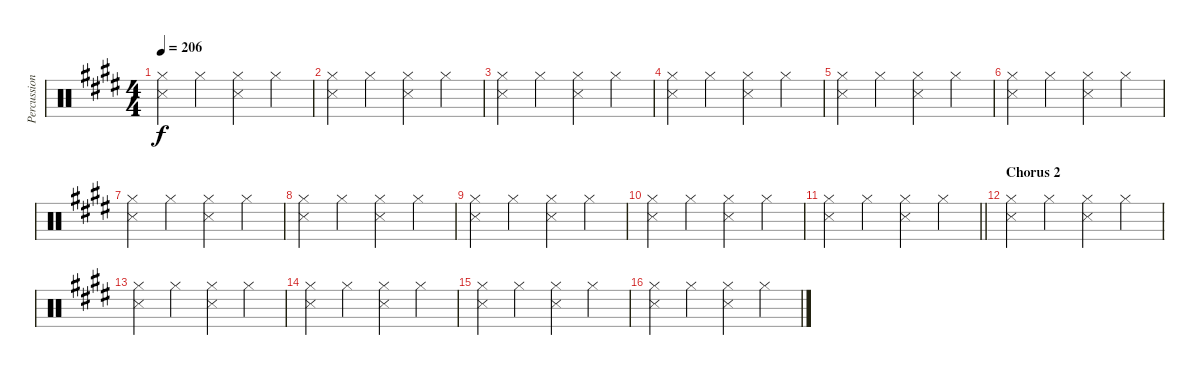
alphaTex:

\track ("Percussion" "Percussion") {instrument percussion}
\staff {score}
\articulation defaults
\ts (4 4)
\tempo 206
\clef neutral
\ks e
("Hi-Hat (closed)" "Snare (side stick) 3").4{dy f} "Hi-Hat (closed)".4 ("Hi-Hat (closed)" "Snare (side stick) 3").4 "Hi-Hat (closed)".4 |
("Hi-Hat (closed)" "Snare (side stick) 3").4 "Hi-Hat (closed)".4 ("Hi-Hat (closed)" "Snare (side stick) 3").4 "Hi-Hat (closed)".4 |
("Hi-Hat (closed)" "Snare (side stick) 3").4 "Hi-Hat (closed)".4 ("Hi-Hat (closed)" "Snare (side stick) 3").4 "Hi-Hat (closed)".4 |
("Hi-Hat (closed)" "Snare (side stick) 3").4 "Hi-Hat (closed)".4 ("Hi-Hat (closed)" "Snare (side stick) 3").4 "Hi-Hat (closed)".4 |
("Hi-Hat (closed)" "Snare (side stick) 3").4 "Hi-Hat (closed)".4 ("Hi-Hat (closed)" "Snare (side stick) 3").4 "Hi-Hat (closed)".4 |
("Hi-Hat (closed)" "Snare (side stick) 3").4 "Hi-Hat (closed)".4 ("Hi-Hat (closed)" "Snare (side stick) 3").4 "Hi-Hat (closed)".4 |
("Hi-Hat (closed)" "Snare (side stick) 3").4 "Hi-Hat (closed)".4 ("Hi-Hat (closed)" "Snare (side stick) 3").4 "Hi-Hat (closed)".4 |
("Hi-Hat (closed)" "Snare (side stick) 3").4 "Hi-Hat (closed)".4 ("Hi-Hat (closed)" "Snare (side stick) 3").4 "Hi-Hat (closed)".4 |
("Hi-Hat (closed)" "Snare (side stick) 3").4 "Hi-Hat (closed)".4 ("Hi-Hat (closed)" "Snare (side stick) 3").4 "Hi-Hat (closed)".4 |
("Hi-Hat (closed)" "Snare (side stick) 3").4 "Hi-Hat (closed)".4 ("Hi-Hat (closed)" "Snare (side stick) 3").4 "Hi-Hat (closed)".4 |
\barLineRight lightlight
("Hi-Hat (closed)" "Snare (side stick) 3").4 "Hi-Hat (closed)".4 ("Hi-Hat (closed)" "Snare (side stick) 3").4 "Hi-Hat (closed)".4 |
\section ("" "Chorus 2")
("Hi-Hat (closed)" "Snare (side stick) 3").4 "Hi-Hat (closed)".4 ("Hi-Hat (closed)" "Snare (side stick) 3").4 "Hi-Hat (closed)".4 |
("Hi-Hat (closed)" "Snare (side stick) 3").4 "Hi-Hat (closed)".4 ("Hi-Hat (closed)" "Snare (side stick) 3").4 "Hi-Hat (closed)".4 |
("Hi-Hat (closed)" "Snare (side stick) 3").4 "Hi-Hat (closed)".4 ("Hi-Hat (closed)" "Snare (side stick) 3").4 "Hi-Hat (closed)".4 |
("Hi-Hat (closed)" "Snare (side stick) 3").4 "Hi-Hat (closed)".4 ("Hi-Hat (closed)" "Snare (side stick) 3").4 "Hi-Hat (closed)".4 |
("Hi-Hat (closed)" "Snare (side stick) 3").4 "Hi-Hat (closed)".4 ("Hi-Hat (closed)" "Snare (side stick) 3").4 "Hi-Hat (closed)".4
